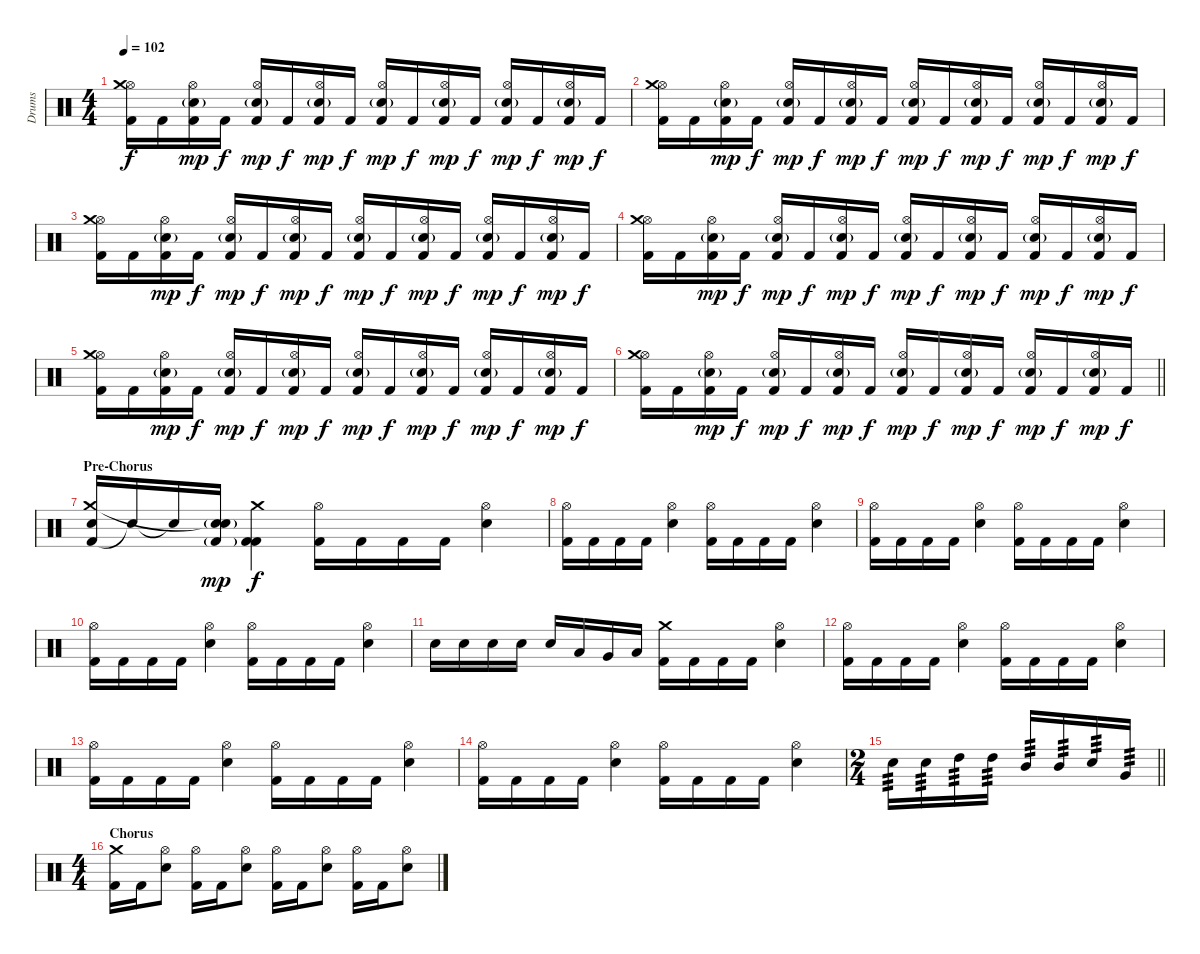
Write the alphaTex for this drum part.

\track ("Drums" "Drums") {instrument percussion}
\staff {score}
\articulation defaults
\ts (4 4)
\tempo 102
\clef neutral
\ks c
("Kick (hit) 2" "Hi-Hat (open)" "Crash medium (hit)").16{dy f} "Kick (hit) 2".16 ("Kick (hit) 2" "Snare (hit) 2"{g} "Hi-Hat (open)").16{dy mp} "Kick (hit) 2".16{dy f} ("Kick (hit) 2" "Snare (hit) 2"{g} "Hi-Hat (open)").16{dy mp} "Kick (hit) 2".16{dy f} ("Kick (hit) 2" "Snare (hit) 2"{g} "Hi-Hat (open)").16{dy mp} "Kick (hit) 2".16{dy f} ("Kick (hit) 2" "Snare (hit) 2"{g} "Hi-Hat (open)").16{dy mp} "Kick (hit) 2".16{dy f} ("Kick (hit) 2" "Snare (hit) 2"{g} "Hi-Hat (open)").16{dy mp} "Kick (hit) 2".16{dy f} ("Kick (hit) 2" "Snare (hit) 2"{g} "Hi-Hat (open)").16{dy mp} "Kick (hit) 2".16{dy f} ("Kick (hit) 2" "Snare (hit) 2"{g} "Hi-Hat (open)").16{dy mp} "Kick (hit) 2".16{dy f} |
("Kick (hit) 2" "Hi-Hat (open)" "Crash medium (hit)").16 "Kick (hit) 2".16 ("Kick (hit) 2" "Snare (hit) 2"{g} "Hi-Hat (open)").16{dy mp} "Kick (hit) 2".16{dy f} ("Kick (hit) 2" "Snare (hit) 2"{g} "Hi-Hat (open)").16{dy mp} "Kick (hit) 2".16{dy f} ("Kick (hit) 2" "Snare (hit) 2"{g} "Hi-Hat (open)").16{dy mp} "Kick (hit) 2".16{dy f} ("Kick (hit) 2" "Snare (hit) 2"{g} "Hi-Hat (open)").16{dy mp} "Kick (hit) 2".16{dy f} ("Kick (hit) 2" "Snare (hit) 2"{g} "Hi-Hat (open)").16{dy mp} "Kick (hit) 2".16{dy f} ("Kick (hit) 2" "Snare (hit) 2"{g} "Hi-Hat (open)").16{dy mp} "Kick (hit) 2".16{dy f} ("Kick (hit) 2" "Snare (hit) 2"{g} "Hi-Hat (open)").16{dy mp} "Kick (hit) 2".16{dy f} |
("Kick (hit) 2" "Hi-Hat (open)" "Crash medium (hit)").16 "Kick (hit) 2".16 ("Kick (hit) 2" "Snare (hit) 2"{g} "Hi-Hat (open)").16{dy mp} "Kick (hit) 2".16{dy f} ("Kick (hit) 2" "Snare (hit) 2"{g} "Hi-Hat (open)").16{dy mp} "Kick (hit) 2".16{dy f} ("Kick (hit) 2" "Snare (hit) 2"{g} "Hi-Hat (open)").16{dy mp} "Kick (hit) 2".16{dy f} ("Kick (hit) 2" "Snare (hit) 2"{g} "Hi-Hat (open)").16{dy mp} "Kick (hit) 2".16{dy f} ("Kick (hit) 2" "Snare (hit) 2"{g} "Hi-Hat (open)").16{dy mp} "Kick (hit) 2".16{dy f} ("Kick (hit) 2" "Snare (hit) 2"{g} "Hi-Hat (open)").16{dy mp} "Kick (hit) 2".16{dy f} ("Kick (hit) 2" "Snare (hit) 2"{g} "Hi-Hat (open)").16{dy mp} "Kick (hit) 2".16{dy f} |
("Kick (hit) 2" "Hi-Hat (open)" "Crash medium (hit)").16 "Kick (hit) 2".16 ("Kick (hit) 2" "Snare (hit) 2"{g} "Hi-Hat (open)").16{dy mp} "Kick (hit) 2".16{dy f} ("Kick (hit) 2" "Snare (hit) 2"{g} "Hi-Hat (open)").16{dy mp} "Kick (hit) 2".16{dy f} ("Kick (hit) 2" "Snare (hit) 2"{g} "Hi-Hat (open)").16{dy mp} "Kick (hit) 2".16{dy f} ("Kick (hit) 2" "Snare (hit) 2"{g} "Hi-Hat (open)").16{dy mp} "Kick (hit) 2".16{dy f} ("Kick (hit) 2" "Snare (hit) 2"{g} "Hi-Hat (open)").16{dy mp} "Kick (hit) 2".16{dy f} ("Kick (hit) 2" "Snare (hit) 2"{g} "Hi-Hat (open)").16{dy mp} "Kick (hit) 2".16{dy f} ("Kick (hit) 2" "Snare (hit) 2"{g} "Hi-Hat (open)").16{dy mp} "Kick (hit) 2".16{dy f} |
("Kick (hit) 2" "Hi-Hat (open)" "Crash medium (hit)").16 "Kick (hit) 2".16 ("Kick (hit) 2" "Snare (hit) 2"{g} "Hi-Hat (open)").16{dy mp} "Kick (hit) 2".16{dy f} ("Kick (hit) 2" "Snare (hit) 2"{g} "Hi-Hat (open)").16{dy mp} "Kick (hit) 2".16{dy f} ("Kick (hit) 2" "Snare (hit) 2"{g} "Hi-Hat (open)").16{dy mp} "Kick (hit) 2".16{dy f} ("Kick (hit) 2" "Snare (hit) 2"{g} "Hi-Hat (open)").16{dy mp} "Kick (hit) 2".16{dy f} ("Kick (hit) 2" "Snare (hit) 2"{g} "Hi-Hat (open)").16{dy mp} "Kick (hit) 2".16{dy f} ("Kick (hit) 2" "Snare (hit) 2"{g} "Hi-Hat (open)").16{dy mp} "Kick (hit) 2".16{dy f} ("Kick (hit) 2" "Snare (hit) 2"{g} "Hi-Hat (open)").16{dy mp} "Kick (hit) 2".16{dy f} |
\barLineRight lightlight
("Kick (hit) 2" "Hi-Hat (open)" "Crash medium (hit)").16 "Kick (hit) 2".16 ("Kick (hit) 2" "Snare (hit) 2"{g} "Hi-Hat (open)").16{dy mp} "Kick (hit) 2".16{dy f} ("Kick (hit) 2" "Snare (hit) 2"{g} "Hi-Hat (open)").16{dy mp} "Kick (hit) 2".16{dy f} ("Kick (hit) 2" "Snare (hit) 2"{g} "Hi-Hat (open)").16{dy mp} "Kick (hit) 2".16{dy f} ("Kick (hit) 2" "Snare (hit) 2"{g} "Hi-Hat (open)").16{dy mp} "Kick (hit) 2".16{dy f} ("Kick (hit) 2" "Snare (hit) 2"{g} "Hi-Hat (open)").16{dy mp} "Kick (hit) 2".16{dy f} ("Kick (hit) 2" "Snare (hit) 2"{g} "Hi-Hat (open)").16{dy mp} "Kick (hit) 2".16{dy f} ("Kick (hit) 2" "Snare (hit) 2"{g} "Hi-Hat (open)").16{dy mp} "Kick (hit) 2".16{dy f} |
\section ("" "Pre-Chorus")
("Kick (hit) 2" "Snare (hit) 2" "Crash medium (hit)").16 "Snare (hit)"{t}.16 "Snare (hit)"{t}.16 ("Kick (hit) 2"{g} "Snare (hit) 2"{g} "Snare (hit)"{t}).16{dy mp} ("Kick (hit) 2" "Kick (hit) 2" "Crash medium (hit)").4{dy f} ("Kick (hit) 2" "Hi-Hat (open)").16 "Kick (hit) 2".16 "Kick (hit) 2".16 "Kick (hit) 2".16 ("Snare (hit) 2" "Hi-Hat (open)").4 |
("Kick (hit) 2" "Hi-Hat (open)").16 "Kick (hit) 2".16 "Kick (hit) 2".16 "Kick (hit) 2".16 ("Snare (hit) 2" "Hi-Hat (open)").4 ("Kick (hit) 2" "Hi-Hat (open)").16 "Kick (hit) 2".16 "Kick (hit) 2".16 "Kick (hit) 2".16 ("Snare (hit) 2" "Hi-Hat (open)").4 |
("Kick (hit) 2" "Hi-Hat (open)").16 "Kick (hit) 2".16 "Kick (hit) 2".16 "Kick (hit) 2".16 ("Snare (hit) 2" "Hi-Hat (open)").4 ("Kick (hit) 2" "Hi-Hat (open)").16 "Kick (hit) 2".16 "Kick (hit) 2".16 "Kick (hit) 2".16 ("Snare (hit) 2" "Hi-Hat (open)").4 |
("Kick (hit) 2" "Hi-Hat (open)").16 "Kick (hit) 2".16 "Kick (hit) 2".16 "Kick (hit) 2".16 ("Snare (hit) 2" "Hi-Hat (open)").4 ("Kick (hit) 2" "Hi-Hat (open)").16 "Kick (hit) 2".16 "Kick (hit) 2".16 "Kick (hit) 2".16 ("Snare (hit) 2" "Hi-Hat (open)").4 |
"Snare (hit) 2".16 "Snare (hit) 2".16 "Snare (hit) 2".16 "Snare (hit) 2".16 "Snare (hit) 2".16 "Low Tom (hit)".16 "Very Low Tom (hit)".16 "Low Floor Tom (hit)".16 ("Kick (hit) 2" "Crash medium (hit)").16 "Kick (hit) 2".16 "Kick (hit) 2".16 "Kick (hit) 2".16 ("Snare (hit) 2" "Hi-Hat (open)").4 |
("Kick (hit) 2" "Hi-Hat (open)").16 "Kick (hit) 2".16 "Kick (hit) 2".16 "Kick (hit) 2".16 ("Snare (hit) 2" "Hi-Hat (open)").4 ("Kick (hit) 2" "Hi-Hat (open)").16 "Kick (hit) 2".16 "Kick (hit) 2".16 "Kick (hit) 2".16 ("Snare (hit) 2" "Hi-Hat (open)").4 |
("Kick (hit) 2" "Hi-Hat (open)").16 "Kick (hit) 2".16 "Kick (hit) 2".16 "Kick (hit) 2".16 ("Snare (hit) 2" "Hi-Hat (open)").4 ("Kick (hit) 2" "Hi-Hat (open)").16 "Kick (hit) 2".16 "Kick (hit) 2".16 "Kick (hit) 2".16 ("Snare (hit) 2" "Hi-Hat (open)").4 |
("Kick (hit) 2" "Hi-Hat (open)").16 "Kick (hit) 2".16 "Kick (hit) 2".16 "Kick (hit) 2".16 ("Snare (hit) 2" "Hi-Hat (open)").4 ("Kick (hit) 2" "Hi-Hat (open)").16 "Kick (hit) 2".16 "Kick (hit) 2".16 "Kick (hit) 2".16 ("Snare (hit) 2" "Hi-Hat (open)").4 |
\ts (2 4)
\barLineRight lightlight "Snare (hit) 2".16{tp 3} "Snare (hit) 2".16{tp 3} "High Tom (hit)".16{tp 3} "High Tom (hit)".16{tp 3} "Mid Tom (hit)".16{tp 3} "Mid Tom (hit)".16{tp 3} "Snare (hit) 2".16{tp 3} "Very Low Tom (hit)".16{tp 3}
|
\ts (4 4)
\section ("" "Chorus")
("Kick (hit) 2" "Crash medium (hit)").16 "Kick (hit) 2".16 ("Snare (hit) 2" "Hi-Hat (open)").8 ("Kick (hit) 2" "Hi-Hat (open)").16 "Kick (hit) 2".16 ("Snare (hit) 2" "Hi-Hat (open)").8 ("Kick (hit) 2" "Hi-Hat (open)").16 "Kick (hit) 2".16 ("Snare (hit) 2" "Hi-Hat (open)").8 ("Kick (hit) 2" "Hi-Hat (open)").16 "Kick (hit) 2".16 ("Snare (hit) 2" "Hi-Hat (open)").8
